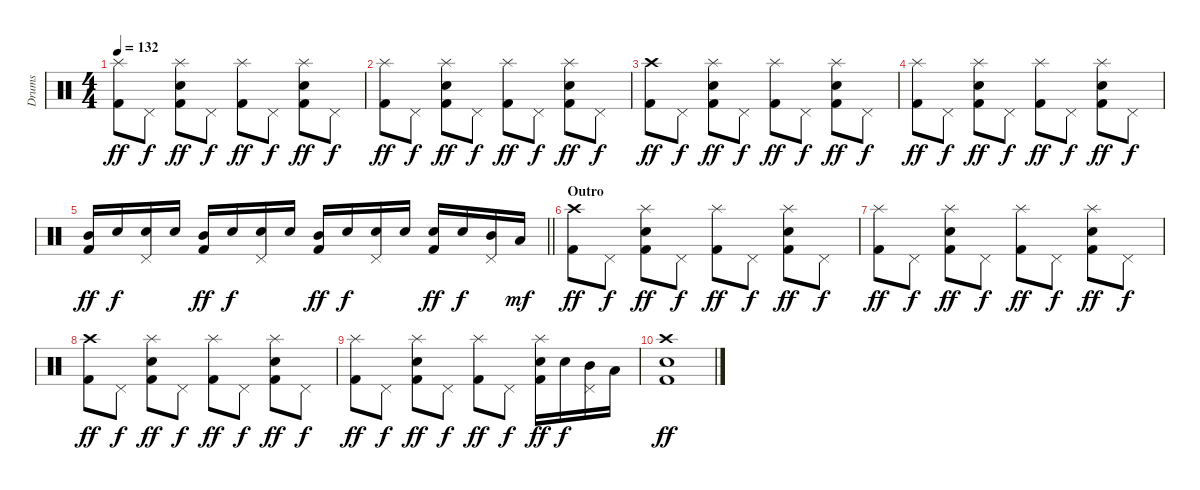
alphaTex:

\track ("Drums" "Drums") {instrument percussion}
\staff {score}
\articulation defaults
\ts (4 4)
\tempo 132
\clef neutral
\ks c
("Splash (hit)" "Kick (hit) 2").8{dy ff} "Pedal Hi-Hat (hit)".8{dy f} ("Splash (hit)" "Snare (hit) 2" "Kick (hit) 2").8{dy ff} "Pedal Hi-Hat (hit)".8{dy f} ("Splash (hit)" "Kick (hit) 2").8{dy ff} "Pedal Hi-Hat (hit)".8{dy f} ("Splash (hit)" "Snare (hit) 2" "Kick (hit) 2").8{dy ff} "Pedal Hi-Hat (hit)".8{dy f} |
("Splash (hit)" "Kick (hit) 2").8{dy ff} "Pedal Hi-Hat (hit)".8{dy f} ("Splash (hit)" "Snare (hit) 2" "Kick (hit) 2").8{dy ff} "Pedal Hi-Hat (hit)".8{dy f} ("Splash (hit)" "Kick (hit) 2").8{dy ff} "Pedal Hi-Hat (hit)".8{dy f} ("Splash (hit)" "Snare (hit) 2" "Kick (hit) 2").8{dy ff} "Pedal Hi-Hat (hit)".8{dy f} |
("Crash high (hit)" "Kick (hit) 2").8{dy ff} "Pedal Hi-Hat (hit)".8{dy f} ("Splash (hit)" "Snare (hit) 2" "Kick (hit) 2").8{dy ff} "Pedal Hi-Hat (hit)".8{dy f} ("Splash (hit)" "Kick (hit) 2").8{dy ff} "Pedal Hi-Hat (hit)".8{dy f} ("Splash (hit)" "Snare (hit) 2" "Kick (hit) 2").8{dy ff} "Pedal Hi-Hat (hit)".8{dy f} |
("Splash (hit)" "Kick (hit) 2").8{dy ff} "Pedal Hi-Hat (hit)".8{dy f} ("Splash (hit)" "Snare (hit) 2" "Kick (hit) 2").8{dy ff} "Pedal Hi-Hat (hit)".8{dy f} ("Splash (hit)" "Kick (hit) 2").8{dy ff} "Pedal Hi-Hat (hit)".8{dy f} ("Splash (hit)" "Snare (hit) 2" "Kick (hit) 2").8{dy ff} "Pedal Hi-Hat (hit)".8{dy f} |
\barLineRight lightlight
("Mid Tom (hit)" "Kick (hit) 2").16{dy ff} "Snare (hit) 2".16{dy f} ("Pedal Hi-Hat (hit)" "Snare (hit) 2").16 "Snare (hit) 2".16 ("Mid Tom (hit)" "Kick (hit) 2").16{dy ff} "Snare (hit) 2".16{dy f} ("Pedal Hi-Hat (hit)" "Snare (hit) 2").16 "Snare (hit) 2".16 ("Mid Tom (hit)" "Kick (hit) 2").16{dy ff} "Snare (hit) 2".16{dy f} ("Pedal Hi-Hat (hit)" "Snare (hit) 2").16 "Snare (hit) 2".16 ("Electric Snare (hit)" "Kick (hit) 2").16{dy ff} "Snare (hit) 2".16{dy f} ("Pedal Hi-Hat (hit)" "Mid Tom (hit)").16 "Low Tom (hit)".16{dy mf} |
\section ("" "Outro")
("Crash high (hit)" "Kick (hit) 2").8{dy ff} "Pedal Hi-Hat (hit)".8{dy f} ("Splash (hit)" "Snare (hit) 2" "Kick (hit) 2").8{dy ff} "Pedal Hi-Hat (hit)".8{dy f} ("Splash (hit)" "Kick (hit) 2").8{dy ff} "Pedal Hi-Hat (hit)".8{dy f} ("Splash (hit)" "Snare (hit) 2" "Kick (hit) 2").8{dy ff} "Pedal Hi-Hat (hit)".8{dy f} |
("Splash (hit)" "Kick (hit) 2").8{dy ff} "Pedal Hi-Hat (hit)".8{dy f} ("Splash (hit)" "Snare (hit) 2" "Kick (hit) 2").8{dy ff} "Pedal Hi-Hat (hit)".8{dy f} ("Splash (hit)" "Kick (hit) 2").8{dy ff} "Pedal Hi-Hat (hit)".8{dy f} ("Splash (hit)" "Snare (hit) 2" "Kick (hit) 2").8{dy ff} "Pedal Hi-Hat (hit)".8{dy f} |
("Crash high (hit)" "Kick (hit) 2").8{dy ff} "Pedal Hi-Hat (hit)".8{dy f} ("Splash (hit)" "Snare (hit) 2" "Kick (hit) 2").8{dy ff} "Pedal Hi-Hat (hit)".8{dy f} ("Splash (hit)" "Kick (hit) 2").8{dy ff} "Pedal Hi-Hat (hit)".8{dy f} ("Splash (hit)" "Snare (hit) 2" "Kick (hit) 2").8{dy ff} "Pedal Hi-Hat (hit)".8{dy f} |
("Splash (hit)" "Kick (hit) 2").8{dy ff} "Pedal Hi-Hat (hit)".8{dy f} ("Splash (hit)" "Snare (hit) 2" "Kick (hit) 2").8{dy ff} "Pedal Hi-Hat (hit)".8{dy f} ("Splash (hit)" "Kick (hit) 2").8{dy ff} "Pedal Hi-Hat (hit)".8{dy f} ("Splash (hit)" "Snare (hit) 2" "Kick (hit) 2").16{dy ff} "Snare (hit) 2".16{dy f} ("Pedal Hi-Hat (hit)" "Mid Tom (hit)").16 "Low Tom (hit)".16 |
("Crash high (hit)" "Snare (hit) 2" "Kick (hit) 2").1{dy ff}
